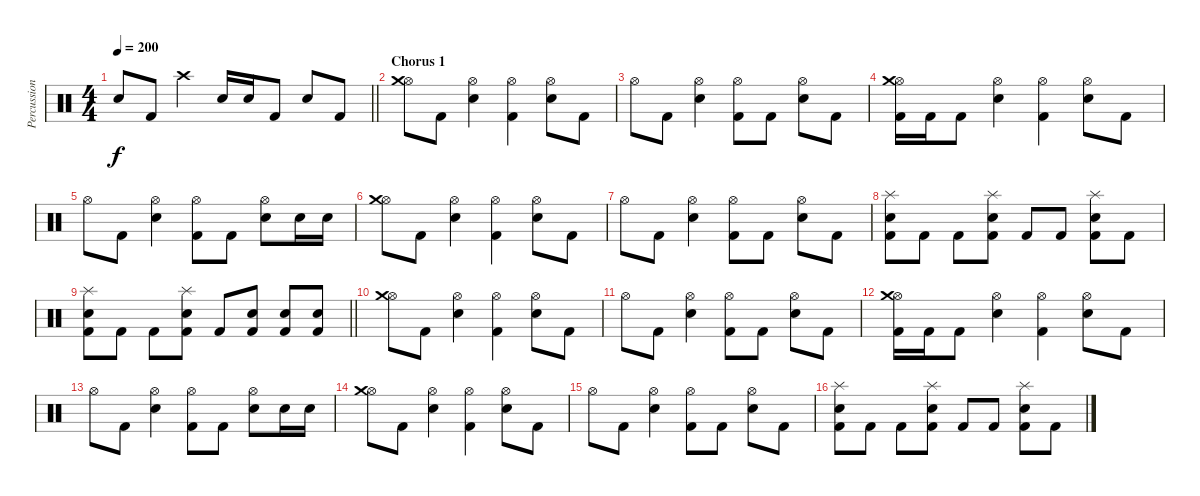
\track ("Percussions" "Percussion") {instrument percussion}
\staff {score}
\articulation defaults
\ts (4 4)
\tempo 200
\clef neutral
\barLineRight lightlight
\ks c "Electric Snare (hit)".8{dy f} "Kick (hit) 2".8 "Crash high (hit)".4 "Electric Snare (hit)".16 "Electric Snare (hit)".16 "Kick (hit) 2".8 "Electric Snare (hit)".8 "Kick (hit) 2".8
|
\section ("" "Chorus 1")
("Hi-Hat (open)" "Crash medium (hit)").8 "Kick (hit) 2".8 ("Hi-Hat (open)" "Electric Snare (hit)").4 ("Hi-Hat (open)" "Kick (hit) 2").4 ("Hi-Hat (open)" "Electric Snare (hit)").8 "Kick (hit) 2".8 |
"Hi-Hat (open)".8 "Kick (hit) 2".8 ("Hi-Hat (open)" "Electric Snare (hit)").4 ("Hi-Hat (open)" "Kick (hit) 2").8 "Kick (hit) 2".8 ("Hi-Hat (open)" "Electric Snare (hit)").8 "Kick (hit) 2".8 |
("Hi-Hat (open)" "Crash medium (hit)" "Kick (hit) 2").16 "Kick (hit) 2".16 "Kick (hit) 2".8 ("Hi-Hat (open)" "Electric Snare (hit)").4 ("Hi-Hat (open)" "Kick (hit) 2").4 ("Hi-Hat (open)" "Electric Snare (hit)").8 "Kick (hit) 2".8 |
"Hi-Hat (open)".8 "Kick (hit) 2".8 ("Hi-Hat (open)" "Electric Snare (hit)").4 ("Hi-Hat (open)" "Kick (hit) 2").8 "Kick (hit) 2".8 ("Hi-Hat (open)" "Electric Snare (hit)").8 "Electric Snare (hit)".16 "Electric Snare (hit)".16 |
("Hi-Hat (open)" "Crash medium (hit)").8 "Kick (hit) 2".8 ("Hi-Hat (open)" "Electric Snare (hit)").4 ("Hi-Hat (open)" "Kick (hit) 2").4 ("Hi-Hat (open)" "Electric Snare (hit)").8 "Kick (hit) 2".8 |
"Hi-Hat (open)".8 "Kick (hit) 2".8 ("Hi-Hat (open)" "Electric Snare (hit)").4 ("Hi-Hat (open)" "Kick (hit) 2").8 "Kick (hit) 2".8 ("Hi-Hat (open)" "Electric Snare (hit)").8 "Kick (hit) 2".8 |
("Splash (hit)" "Electric Snare (hit)" "Kick (hit) 2").8 "Kick (hit) 2".8 "Kick (hit) 2".8 ("Splash (hit)" "Electric Snare (hit)" "Kick (hit) 2").8 "Kick (hit) 2".8 "Kick (hit) 2".8 ("Splash (hit)" "Electric Snare (hit)" "Kick (hit) 2").8 "Kick (hit) 2".8 |
\barLineRight lightlight
("Splash (hit)" "Electric Snare (hit)" "Kick (hit) 2").8 "Kick (hit) 2".8 "Kick (hit) 2".8 ("Splash (hit)" "Electric Snare (hit)" "Kick (hit) 2").8 "Kick (hit) 2".8 ("Electric Snare (hit)" "Kick (hit) 2").8 ("Electric Snare (hit)" "Kick (hit) 2").8 ("Electric Snare (hit)" "Kick (hit) 2").8 |
("Hi-Hat (open)" "Crash medium (hit)").8 "Kick (hit) 2".8 ("Hi-Hat (open)" "Electric Snare (hit)").4 ("Hi-Hat (open)" "Kick (hit) 2").4 ("Hi-Hat (open)" "Electric Snare (hit)").8 "Kick (hit) 2".8 |
"Hi-Hat (open)".8 "Kick (hit) 2".8 ("Hi-Hat (open)" "Electric Snare (hit)").4 ("Hi-Hat (open)" "Kick (hit) 2").8 "Kick (hit) 2".8 ("Hi-Hat (open)" "Electric Snare (hit)").8 "Kick (hit) 2".8 |
("Hi-Hat (open)" "Crash medium (hit)" "Kick (hit) 2").16 "Kick (hit) 2".16 "Kick (hit) 2".8 ("Hi-Hat (open)" "Electric Snare (hit)").4 ("Hi-Hat (open)" "Kick (hit) 2").4 ("Hi-Hat (open)" "Electric Snare (hit)").8 "Kick (hit) 2".8 |
"Hi-Hat (open)".8 "Kick (hit) 2".8 ("Hi-Hat (open)" "Electric Snare (hit)").4 ("Hi-Hat (open)" "Kick (hit) 2").8 "Kick (hit) 2".8 ("Hi-Hat (open)" "Electric Snare (hit)").8 "Electric Snare (hit)".16 "Electric Snare (hit)".16 |
("Hi-Hat (open)" "Crash medium (hit)").8 "Kick (hit) 2".8 ("Hi-Hat (open)" "Electric Snare (hit)").4 ("Hi-Hat (open)" "Kick (hit) 2").4 ("Hi-Hat (open)" "Electric Snare (hit)").8 "Kick (hit) 2".8 |
"Hi-Hat (open)".8 "Kick (hit) 2".8 ("Hi-Hat (open)" "Electric Snare (hit)").4 ("Hi-Hat (open)" "Kick (hit) 2").8 "Kick (hit) 2".8 ("Hi-Hat (open)" "Electric Snare (hit)").8 "Kick (hit) 2".8 |
("Splash (hit)" "Electric Snare (hit)" "Kick (hit) 2").8 "Kick (hit) 2".8 "Kick (hit) 2".8 ("Splash (hit)" "Electric Snare (hit)" "Kick (hit) 2").8 "Kick (hit) 2".8 "Kick (hit) 2".8 ("Splash (hit)" "Electric Snare (hit)" "Kick (hit) 2").8 "Kick (hit) 2".8
